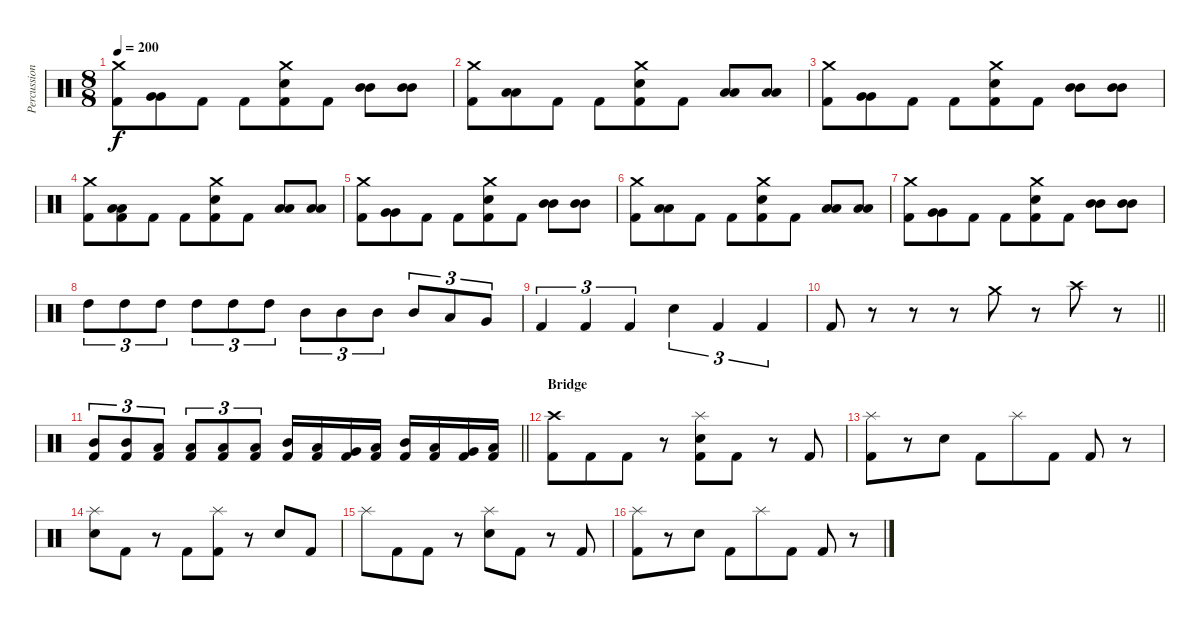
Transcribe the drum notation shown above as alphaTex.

\track ("Percussions" "Percussion") {instrument percussion}
\staff {score}
\articulation defaults
\ts (8 8)
\tempo 200
\clef neutral
\ks c
("Crash medium (hit)" "Kick (hit) 2").8{dy f} ("Very Low Tom (hit)" "Very Low Tom (hit)").8 "Kick (hit) 2".8 "Kick (hit) 2".8 ("Crash medium (hit)" "Electric Snare (hit)" "Kick (hit) 2").8 "Kick (hit) 2".8 ("Mid Tom (hit)" "Mid Tom (hit)").8 ("Mid Tom (hit)" "Mid Tom (hit)").8 |
("Crash medium (hit)" "Kick (hit) 2").8 ("Low Tom (hit)" "Low Tom (hit)").8 "Kick (hit) 2".8 "Kick (hit) 2".8 ("Crash medium (hit)" "Electric Snare (hit)" "Kick (hit) 2").8 "Kick (hit) 2".8 ("Low Tom (hit)" "Low Tom (hit)").8 ("Low Tom (hit)" "Low Tom (hit)").8 |
("Crash medium (hit)" "Kick (hit) 2").8 ("Very Low Tom (hit)" "Very Low Tom (hit)").8 "Kick (hit) 2".8 "Kick (hit) 2".8 ("Crash medium (hit)" "Electric Snare (hit)" "Kick (hit) 2").8 "Kick (hit) 2".8 ("Mid Tom (hit)" "Mid Tom (hit)").8 ("Mid Tom (hit)" "Mid Tom (hit)").8 |
("Crash medium (hit)" "Kick (hit) 2").8 ("Low Tom (hit)" "Low Tom (hit)" "Kick (hit) 2").8 "Kick (hit) 2".8 "Kick (hit) 2".8 ("Crash medium (hit)" "Electric Snare (hit)" "Kick (hit) 2").8 "Kick (hit) 2".8 ("Low Tom (hit)" "Low Tom (hit)").8 ("Low Tom (hit)" "Low Tom (hit)").8 |
("Crash medium (hit)" "Kick (hit) 2").8 ("Very Low Tom (hit)" "Very Low Tom (hit)").8 "Kick (hit) 2".8 "Kick (hit) 2".8 ("Crash medium (hit)" "Electric Snare (hit)" "Kick (hit) 2").8 "Kick (hit) 2".8 ("Mid Tom (hit)" "Mid Tom (hit)").8 ("Mid Tom (hit)" "Mid Tom (hit)").8 |
("Crash medium (hit)" "Kick (hit) 2").8 ("Low Tom (hit)" "Low Tom (hit)").8 "Kick (hit) 2".8 "Kick (hit) 2".8 ("Crash medium (hit)" "Electric Snare (hit)" "Kick (hit) 2").8 "Kick (hit) 2".8 ("Low Tom (hit)" "Low Tom (hit)").8 ("Low Tom (hit)" "Low Tom (hit)").8 |
("Crash medium (hit)" "Kick (hit) 2").8 ("Very Low Tom (hit)" "Very Low Tom (hit)").8 "Kick (hit) 2".8 "Kick (hit) 2".8 ("Crash medium (hit)" "Electric Snare (hit)" "Kick (hit) 2").8 "Kick (hit) 2".8 ("Mid Tom (hit)" "Mid Tom (hit)").8 ("Mid Tom (hit)" "Mid Tom (hit)").8 |
"High Tom (hit)".8{tu (3 2)} "High Tom (hit)".8{tu (3 2)} "High Tom (hit)".8{tu (3 2)} "High Tom (hit)".8{tu (3 2)} "High Tom (hit)".8{tu (3 2)} "High Tom (hit)".8{tu (3 2)} "Mid Tom (hit)".8{tu (3 2)} "Mid Tom (hit)".8{tu (3 2)} "Mid Tom (hit)".8{tu (3 2)} "Mid Tom (hit)".8{tu (3 2)} "Low Tom (hit)".8{tu (3 2)} "Very Low Tom (hit)".8{tu (3 2)} |
"Kick (hit) 2".4{tu (3 2)} "Kick (hit) 2".4{tu (3 2)} "Kick (hit) 2".4{tu (3 2)} "Electric Snare (hit)".4{tu (3 2)} "Kick (hit) 2".4{tu (3 2)} "Kick (hit) 2".4{tu (3 2)} |
\barLineRight lightlight "Kick (hit) 2".8
r.8 r.8 r.8 "Crash medium (hit)".8 r.8 "Crash high (hit)".8 r.8 |
\barLineRight lightlight
("Mid Tom (hit)" "Kick (hit) 2").8{tu (3 2)} ("Mid Tom (hit)" "Kick (hit) 2").8{tu (3 2)} ("Low Tom (hit)" "Kick (hit) 2").8{tu (3 2)} ("Low Tom (hit)" "Kick (hit) 2").8{tu (3 2)} ("Low Tom (hit)" "Kick (hit) 2").8{tu (3 2)} ("Low Tom (hit)" "Kick (hit) 2").8{tu (3 2)} ("Mid Tom (hit)" "Kick (hit) 2").16 ("Low Tom (hit)" "Kick (hit) 2").16 ("Very Low Tom (hit)" "Kick (hit) 2").16 ("Low Floor Tom (hit)" "Kick (hit) 2").16 ("Mid Tom (hit)" "Kick (hit) 2").16 ("Low Tom (hit)" "Kick (hit) 2").16 ("Very Low Tom (hit)" "Kick (hit) 2").16 ("Low Floor Tom (hit)" "Kick (hit) 2").16 |
\section ("" "Bridge")
("Crash high (hit)" "Kick (hit) 2").8 "Kick (hit) 2".8 "Kick (hit) 2".8 r.8 ("Splash (hit)" "Electric Snare (hit)" "Kick (hit) 2").8 "Kick (hit) 2".8 r.8 "Kick (hit) 2".8 |
("Splash (hit)" "Kick (hit) 2").8 r.8 "Electric Snare (hit)".8 "Kick (hit) 2".8 "Splash (hit)".8 "Kick (hit) 2".8 "Kick (hit) 2".8 r.8 |
("Splash (hit)" "Electric Snare (hit)").8 "Kick (hit) 2".8 r.8 "Kick (hit) 2".8 ("Splash (hit)" "Kick (hit) 2").8 r.8 "Electric Snare (hit)".8 "Kick (hit) 2".8 |
"Splash (hit)".8 "Kick (hit) 2".8 "Kick (hit) 2".8 r.8 ("Splash (hit)" "Electric Snare (hit)").8 "Kick (hit) 2".8 r.8 "Kick (hit) 2".8 |
("Splash (hit)" "Kick (hit) 2").8 r.8 "Electric Snare (hit)".8 "Kick (hit) 2".8 "Splash (hit)".8 "Kick (hit) 2".8 "Kick (hit) 2".8 r.8
